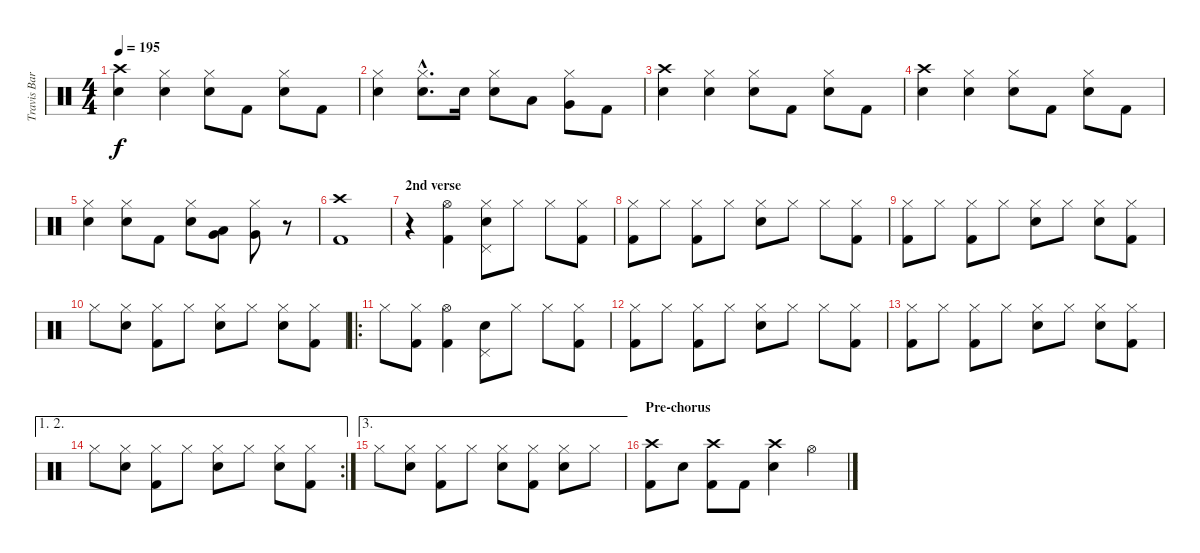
\track ("Travis Barker (Schlagzeug)" "Travis Bar") {instrument percussion}
\staff {score}
\articulation defaults
\ts (4 4)
\tempo 195
\clef neutral
\ks c
("Crash high (hit)" "Electric Snare (hit)").4{dy f} ("Hi-Hat (closed)" "Electric Snare (hit)").4 ("Hi-Hat (closed)" "Electric Snare (hit)").8 "Kick (hit) 2".8 ("Hi-Hat (closed)" "Electric Snare (hit)").8 "Kick (hit) 2".8 |
("Hi-Hat (closed)" "Electric Snare (hit)").4 ("Hi-Hat (closed)"{hac} "Electric Snare (hit)"{hac}).8{d} "Electric Snare (hit)".16 ("Hi-Hat (closed)" "Electric Snare (hit)").8 "Low Tom (hit)".8 ("Very Low Tom (hit)" "Hi-Hat (closed)").8 "Kick (hit) 2".8 |
("Crash high (hit)" "Electric Snare (hit)").4 ("Hi-Hat (closed)" "Electric Snare (hit)").4 ("Hi-Hat (closed)" "Electric Snare (hit)").8 "Kick (hit) 2".8 ("Hi-Hat (closed)" "Electric Snare (hit)").8 "Kick (hit) 2".8 |
("Crash high (hit)" "Electric Snare (hit)").4 ("Hi-Hat (closed)" "Electric Snare (hit)").4 ("Hi-Hat (closed)" "Electric Snare (hit)").8 "Kick (hit) 2".8 ("Hi-Hat (closed)" "Electric Snare (hit)").8 "Kick (hit) 2".8 |
("Hi-Hat (closed)" "Electric Snare (hit)").4 ("Hi-Hat (closed)" "Electric Snare (hit)").8 "Kick (hit) 2".8 ("Hi-Hat (closed)" "Electric Snare (hit)").8 ("Low Tom (hit)" "Very Low Tom (hit)").8 ("Very Low Tom (hit)" "Hi-Hat (closed)").8 r.8 |
("Crash high (hit)" "Kick (hit) 2").1 |
\section ("" "2nd verse")
r.4 ("Hi-Hat (open)" "Kick (hit) 2").4 ("Pedal Hi-Hat (hit)" "Hi-Hat (closed)" "Electric Snare (hit)").8 "Hi-Hat (closed)".8 "Hi-Hat (closed)".8 ("Hi-Hat (closed)" "Kick (hit) 2").8 |
("Hi-Hat (closed)" "Kick (hit) 2").8 "Hi-Hat (closed)".8 ("Hi-Hat (closed)" "Kick (hit) 2").8 "Hi-Hat (closed)".8 ("Hi-Hat (closed)" "Electric Snare (hit)").8 "Hi-Hat (closed)".8 "Hi-Hat (closed)".8 ("Hi-Hat (closed)" "Kick (hit) 2").8 |
("Hi-Hat (closed)" "Kick (hit) 2").8 "Hi-Hat (closed)".8 ("Hi-Hat (closed)" "Kick (hit) 2").8 "Hi-Hat (closed)".8 ("Hi-Hat (closed)" "Electric Snare (hit)").8 "Hi-Hat (closed)".8 ("Hi-Hat (closed)" "Electric Snare (hit)").8 ("Hi-Hat (closed)" "Kick (hit) 2").8 |
"Hi-Hat (closed)".8 ("Hi-Hat (closed)" "Electric Snare (hit)").8 ("Hi-Hat (closed)" "Kick (hit) 2").8 "Hi-Hat (closed)".8 ("Hi-Hat (closed)" "Electric Snare (hit)").8 "Hi-Hat (closed)".8 ("Hi-Hat (closed)" "Electric Snare (hit)").8 ("Hi-Hat (closed)" "Kick (hit) 2").8 |
\ro "Hi-Hat (closed)".8
("Hi-Hat (closed)" "Kick (hit) 2").8 ("Hi-Hat (open)" "Kick (hit) 2").4 ("Pedal Hi-Hat (hit)" "Electric Snare (hit)").8 "Hi-Hat (closed)".8 "Hi-Hat (closed)".8 ("Hi-Hat (closed)" "Kick (hit) 2").8 |
("Hi-Hat (closed)" "Kick (hit) 2").8 "Hi-Hat (closed)".8 ("Hi-Hat (closed)" "Kick (hit) 2").8 "Hi-Hat (closed)".8 ("Hi-Hat (closed)" "Electric Snare (hit)").8 "Hi-Hat (closed)".8 "Hi-Hat (closed)".8 ("Hi-Hat (closed)" "Kick (hit) 2").8 |
("Hi-Hat (closed)" "Kick (hit) 2").8 "Hi-Hat (closed)".8 ("Hi-Hat (closed)" "Kick (hit) 2").8 "Hi-Hat (closed)".8 ("Hi-Hat (closed)" "Electric Snare (hit)").8 "Hi-Hat (closed)".8 ("Hi-Hat (closed)" "Electric Snare (hit)").8 ("Hi-Hat (closed)" "Kick (hit) 2").8 |
\ae (1 2)
\rc 2 "Hi-Hat (closed)".8
("Hi-Hat (closed)" "Electric Snare (hit)").8 ("Hi-Hat (closed)" "Kick (hit) 2").8 "Hi-Hat (closed)".8 ("Hi-Hat (closed)" "Electric Snare (hit)").8 "Hi-Hat (closed)".8 ("Hi-Hat (closed)" "Electric Snare (hit)").8 ("Hi-Hat (closed)" "Kick (hit) 2").8 |
\ae 3 "Hi-Hat (closed)".8
("Hi-Hat (closed)" "Electric Snare (hit)").8 ("Hi-Hat (closed)" "Kick (hit) 2").8 "Hi-Hat (closed)".8 ("Hi-Hat (closed)" "Electric Snare (hit)").8 ("Hi-Hat (closed)" "Kick (hit) 2").8 ("Hi-Hat (closed)" "Electric Snare (hit)").8 "Hi-Hat (closed)".8 |
\section ("" "Pre-chorus")
("Crash high (hit)" "Kick (hit) 2").8 "Electric Snare (hit)".8 ("Crash high (hit)" "Kick (hit) 2").8 "Kick (hit) 2".8 ("Crash high (hit)" "Electric Snare (hit)").4 "Hi-Hat (open)".4
